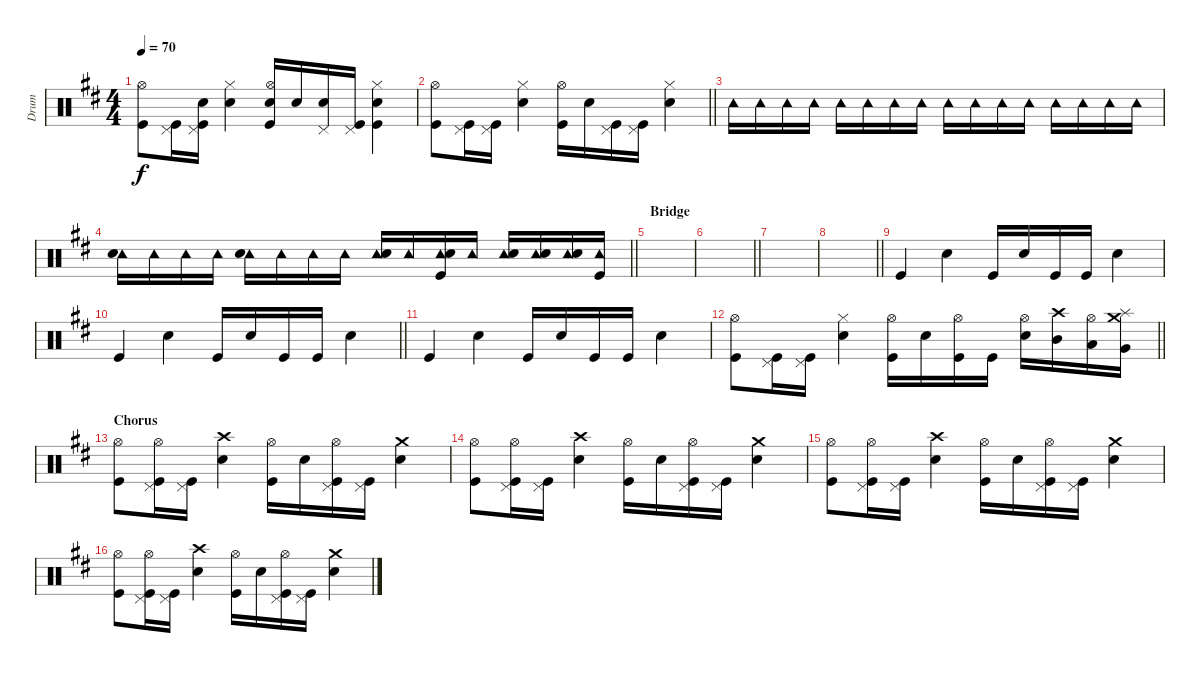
\track ("Drum" "Drum") {instrument percussion}
\staff {score}
\articulation defaults
\ts (4 4)
\tempo 70
\clef neutral
\ks d
("Kick (hit)" "Hi-Hat (open)").8{dy f} ("Kick (hit)" "Pedal Hi-Hat (hit)").16 ("Kick (hit)" "Snare (hit) 2" "Pedal Hi-Hat (hit)").16 ("Snare (hit) 2" "Hi-Hat (closed)").4 ("Kick (hit)" "Snare (hit) 2" "Hi-Hat (open)").16 "Snare (hit) 2".16 ("Pedal Hi-Hat (hit)" "Snare (hit) 2").16 ("Kick (hit)" "Pedal Hi-Hat (hit)").16 ("Snare (hit) 2" "Kick (hit)" "Hi-Hat (closed)").4 |
\barLineRight lightlight
("Kick (hit)" "Hi-Hat (open)").8 ("Kick (hit)" "Pedal Hi-Hat (hit)").16 ("Kick (hit)" "Pedal Hi-Hat (hit)").16 ("Snare (hit) 2" "Hi-Hat (closed)").4 ("Kick (hit)" "Hi-Hat (open)").16 "Snare (hit) 2".16 ("Kick (hit)" "Pedal Hi-Hat (hit)").16 ("Kick (hit)" "Pedal Hi-Hat (hit)").16 ("Snare (hit) 2" "Hi-Hat (closed)").4 |
"Tambourine (hit)".16{volume 16} "Tambourine (hit)".16 "Tambourine (hit)".16 "Tambourine (hit)".16 "Tambourine (hit)".16 "Tambourine (hit)".16 "Tambourine (hit)".16 "Tambourine (hit)".16 "Tambourine (hit)".16 "Tambourine (hit)".16 "Tambourine (hit)".16 "Tambourine (hit)".16 "Tambourine (hit)".16 "Tambourine (hit)".16 "Tambourine (hit)".16 "Tambourine (hit)".16 |
\barLineRight lightlight
("Tambourine (hit)" "Snare (hit) 2").16 "Tambourine (hit)".16 "Tambourine (hit)".16 "Tambourine (hit)".16 ("Tambourine (hit)" "Snare (hit) 2").16 "Tambourine (hit)".16 "Tambourine (hit)".16 "Tambourine (hit)".16 ("Tambourine (hit)" "Snare (hit) 2").16 "Tambourine (hit)".16 ("Tambourine (hit)" "Kick (hit)" "Snare (hit) 2").16 "Tambourine (hit)".16 ("Tambourine (hit)" "Snare (hit) 2").16 ("Tambourine (hit)" "Snare (hit) 2").16 ("Tambourine (hit)" "Snare (hit) 2").16 ("Tambourine (hit)" "Kick (hit)").16 |
\section ("" "Bridge")
|
\barLineRight lightlight
|
|
\barLineRight lightlight
|
"Kick (hit)".4 "Snare (hit) 2".4 "Kick (hit)".16 "Snare (hit) 2".16 "Kick (hit)".16 "Kick (hit)".16 "Snare (hit) 2".4 |
\barLineRight lightlight "Kick (hit)".4 "Snare (hit) 2".4 "Kick (hit)".16 "Snare (hit) 2".16 "Kick (hit)".16 "Kick (hit)".16 "Snare (hit) 2".4
|
"Kick (hit)".4 "Snare (hit) 2".4 "Kick (hit)".16 "Snare (hit) 2".16 "Kick (hit)".16 "Kick (hit)".16 "Snare (hit) 2".4 |
\barLineRight lightlight
("Kick (hit)" "Hi-Hat (open)").8 ("Kick (hit)" "Pedal Hi-Hat (hit)").16 ("Kick (hit)" "Pedal Hi-Hat (hit)").16 ("Snare (hit) 2" "Hi-Hat (closed)").4 ("Kick (hit)" "Hi-Hat (open)").16 "Snare (hit) 2".16 ("Kick (hit)" "Hi-Hat (open)").16 "Kick (hit)".16 ("Hi-Hat (open)" "Snare (hit) 2").16 ("Crash high (hit)" "Mid Tom (hit)").16 ("Hi-Hat (open)" "Low Tom (hit)").16 ("Splash (hit)" "Crash medium (hit)" "Very Low Tom (hit)").16 |
\section ("" "Chorus")
("Kick (hit)" "Hi-Hat (open)").8 ("Kick (hit)" "Pedal Hi-Hat (hit)" "Hi-Hat (open)").16 ("Kick (hit)" "Pedal Hi-Hat (hit)").16 ("Snare (hit) 2" "Crash high (hit)").4 ("Kick (hit)" "Hi-Hat (open)").16 "Snare (hit) 2".16 ("Kick (hit)" "Pedal Hi-Hat (hit)" "Hi-Hat (open)").16 ("Kick (hit)" "Pedal Hi-Hat (hit)").16 ("Snare (hit) 2" "Crash medium (hit)").4 |
("Kick (hit)" "Hi-Hat (open)").8 ("Kick (hit)" "Pedal Hi-Hat (hit)" "Hi-Hat (open)").16 ("Kick (hit)" "Pedal Hi-Hat (hit)").16 ("Snare (hit) 2" "Crash high (hit)").4 ("Kick (hit)" "Hi-Hat (open)").16 "Snare (hit) 2".16 ("Kick (hit)" "Pedal Hi-Hat (hit)" "Hi-Hat (open)").16 ("Kick (hit)" "Pedal Hi-Hat (hit)").16 ("Snare (hit) 2" "Crash medium (hit)").4 |
("Kick (hit)" "Hi-Hat (open)").8 ("Kick (hit)" "Pedal Hi-Hat (hit)" "Hi-Hat (open)").16 ("Kick (hit)" "Pedal Hi-Hat (hit)").16 ("Snare (hit) 2" "Crash high (hit)").4 ("Kick (hit)" "Hi-Hat (open)").16 "Snare (hit) 2".16 ("Kick (hit)" "Pedal Hi-Hat (hit)" "Hi-Hat (open)").16 ("Kick (hit)" "Pedal Hi-Hat (hit)").16 ("Snare (hit) 2" "Crash medium (hit)").4 |
("Kick (hit)" "Hi-Hat (open)").8 ("Kick (hit)" "Pedal Hi-Hat (hit)" "Hi-Hat (open)").16 ("Kick (hit)" "Pedal Hi-Hat (hit)").16 ("Snare (hit) 2" "Crash high (hit)").4 ("Kick (hit)" "Hi-Hat (open)").16 "Snare (hit) 2".16 ("Kick (hit)" "Pedal Hi-Hat (hit)" "Hi-Hat (open)").16 ("Kick (hit)" "Pedal Hi-Hat (hit)").16 ("Snare (hit) 2" "Crash medium (hit)").4
